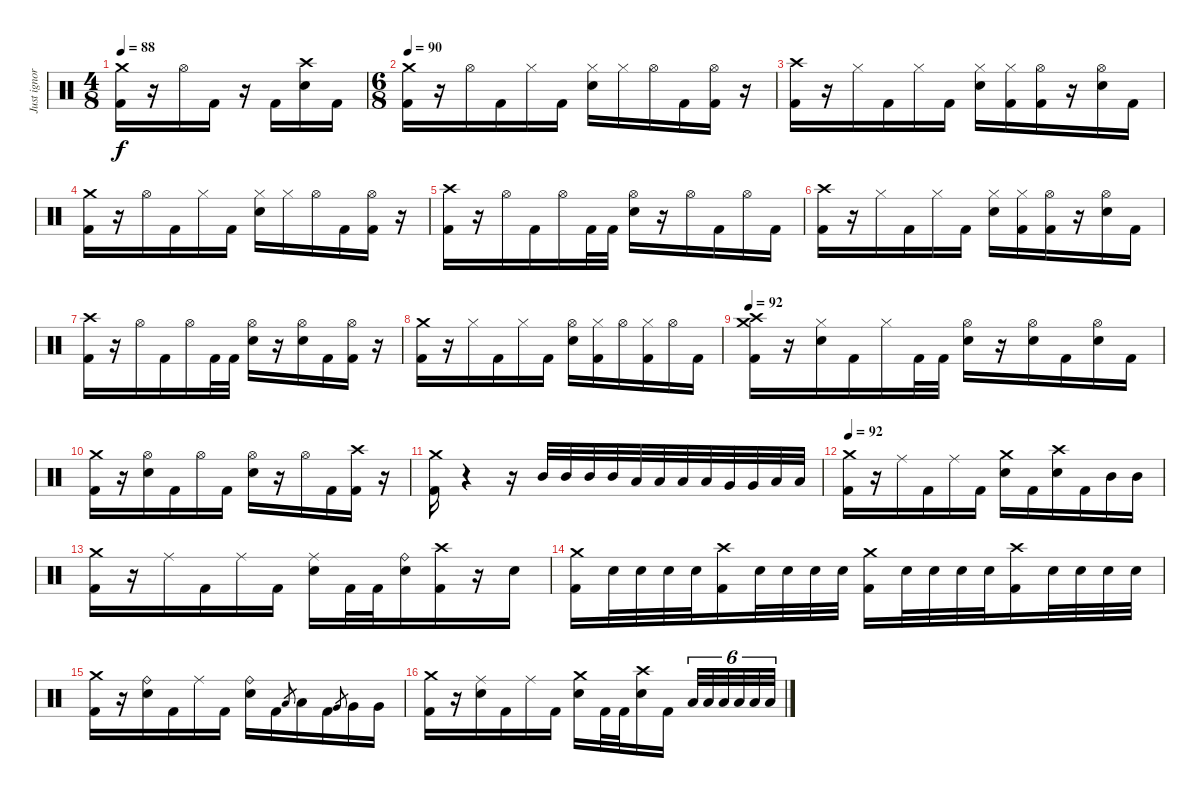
\track ("Just ignore this track" "Just ignor") {instrument percussion}
\staff {score}
\articulation defaults
\ts (4 8)
\tempo 88
\clef neutral
\ks c
("Crash medium (hit)" "Kick (hit) 2").16{dy f} r.16 "Hi-Hat (open)".16 "Kick (hit) 2".16 r.16 "Kick (hit) 2".16 ("Crash high (hit)" "Electric Snare (hit)").16 "Kick (hit) 2".16 |
\ts (6 8)
\tempo 90
("Crash medium (hit)" "Kick (hit) 2").16 r.16 "Hi-Hat (open)".16 "Kick (hit) 2".16 "Hi-Hat (closed)".16 "Kick (hit) 2".16 ("Hi-Hat (closed)" "Electric Snare (hit)").16 "Hi-Hat (closed)".16 "Hi-Hat (open)".16 "Kick (hit) 2".16 ("Hi-Hat (open)" "Kick (hit) 2").16 r.16 |
("Crash high (hit)" "Kick (hit) 2").16 r.16 "Hi-Hat (closed)".16 "Kick (hit) 2".16 "Hi-Hat (closed)".16 "Kick (hit) 2".16 ("Hi-Hat (closed)" "Electric Snare (hit)").16 ("Hi-Hat (closed)" "Kick (hit) 2").16 ("Hi-Hat (open)" "Kick (hit) 2").16 r.16 ("Hi-Hat (open)" "Electric Snare (hit)").16 "Kick (hit) 2".16 |
("Crash medium (hit)" "Kick (hit) 2").16 r.16 "Hi-Hat (open)".16 "Kick (hit) 2".16 "Hi-Hat (closed)".16 "Kick (hit) 2".16 ("Hi-Hat (closed)" "Electric Snare (hit)").16 "Hi-Hat (closed)".16 "Hi-Hat (open)".16 "Kick (hit) 2".16 ("Hi-Hat (open)" "Kick (hit) 2").16 r.16 |
("Crash high (hit)" "Kick (hit) 2").16 r.16 "Hi-Hat (open)".16 "Kick (hit) 2".16 "Hi-Hat (open)".16 "Kick (hit) 2".32 "Kick (hit) 2".32 ("Hi-Hat (open)" "Electric Snare (hit)").16 r.16 "Hi-Hat (open)".16 "Kick (hit) 2".16 "Hi-Hat (open)".16 "Kick (hit) 2".16 |
("Crash high (hit)" "Kick (hit) 2").16 r.16 "Hi-Hat (closed)".16 "Kick (hit) 2".16 "Hi-Hat (closed)".16 "Kick (hit) 2".16 ("Hi-Hat (closed)" "Electric Snare (hit)").16 ("Hi-Hat (closed)" "Kick (hit) 2").16 ("Hi-Hat (open)" "Kick (hit) 2").16 r.16 ("Hi-Hat (open)" "Electric Snare (hit)").16 "Kick (hit) 2".16 |
("Crash high (hit)" "Kick (hit) 2").16 r.16 "Hi-Hat (open)".16 "Kick (hit) 2".16 "Hi-Hat (open)".16 "Kick (hit) 2".32 "Kick (hit) 2".32 ("Hi-Hat (open)" "Electric Snare (hit)").16 r.16 ("Hi-Hat (open)" "Electric Snare (hit)").16 "Kick (hit) 2".16 ("Hi-Hat (open)" "Kick (hit) 2").16 r.16 |
("Crash medium (hit)" "Kick (hit) 2").16 r.16 "Hi-Hat (closed)".16 "Kick (hit) 2".16 "Hi-Hat (closed)".16 "Kick (hit) 2".16 ("Hi-Hat (open)" "Electric Snare (hit)").16 ("Hi-Hat (closed)" "Kick (hit) 2").16 "Hi-Hat (open)".16 ("Hi-Hat (closed)" "Kick (hit) 2").16 "Hi-Hat (open)".16 "Kick (hit) 2".16 |
\tempo 92
("Crash medium (hit)" "Crash high (hit)" "Kick (hit) 2").16 r.16 ("Hi-Hat (closed)" "Electric Snare (hit)").16 "Kick (hit) 2".16 "Hi-Hat (closed)".16 "Kick (hit) 2".32 "Kick (hit) 2".32 ("Hi-Hat (open)" "Electric Snare (hit)").16 r.16 ("Hi-Hat (open)" "Electric Snare (hit)").16 "Kick (hit) 2".16 ("Hi-Hat (open)" "Electric Snare (hit)").16 "Kick (hit) 2".16 |
("Crash medium (hit)" "Kick (hit) 2").16 r.16 ("Hi-Hat (open)" "Electric Snare (hit)").16 "Kick (hit) 2".16 "Hi-Hat (open)".16 "Kick (hit) 2".16 ("Hi-Hat (open)" "Electric Snare (hit)").16 r.16 "Hi-Hat (open)".16 "Kick (hit) 2".16 ("Crash high (hit)" "Kick (hit) 2").16 r.16 |
("Crash medium (hit)" "Kick (hit) 2").16 r.4 r.16 "Mid Tom (hit)".32 "Mid Tom (hit)".32 "Mid Tom (hit)".32 "Mid Tom (hit)".32 "Low Tom (hit)".32 "Low Tom (hit)".32 "Low Tom (hit)".32 "Low Tom (hit)".32 "Very Low Tom (hit)".32 "Very Low Tom (hit)".32 "Low Floor Tom (hit)".32 "Low Floor Tom (hit)".32 |
\tempo 92
("Crash medium (hit)" "Kick (hit) 2").16 r.16 "Ride (middle)".16 "Kick (hit) 2".16 "Ride (middle)".16 "Kick (hit) 2".16 ("Crash medium (hit)" "Electric Snare (hit)").16 "Kick (hit) 2".16 ("Crash high (hit)" "Electric Snare (hit)").16 "Kick (hit) 2".16 "Mid Tom (hit)".16 "Mid Tom (hit)".16 |
("Crash medium (hit)" "Kick (hit) 2").16 r.16 "Ride (middle)".16 "Kick (hit) 2".16 "Ride (middle)".16 "Kick (hit) 2".16 ("Ride (middle)" "Electric Snare (hit)").16 "Kick (hit) 2".32 "Kick (hit) 2".32 ("Ride (bell)" "Electric Snare (hit)").16 ("Crash high (hit)" "Kick (hit) 2").16 r.16 "Electric Snare (hit)".16 |
("Crash medium (hit)" "Kick (hit) 2").16 "Electric Snare (hit)".32 "Electric Snare (hit)".32 "Electric Snare (hit)".32 "Electric Snare (hit)".32 ("Crash high (hit)" "Kick (hit) 2").16 "Electric Snare (hit)".32 "Electric Snare (hit)".32 "Electric Snare (hit)".32 "Electric Snare (hit)".32 ("Crash medium (hit)" "Kick (hit) 2").16 "Electric Snare (hit)".32 "Electric Snare (hit)".32 "Electric Snare (hit)".32 "Electric Snare (hit)".32 ("Crash high (hit)" "Kick (hit) 2").16 "Electric Snare (hit)".32 "Electric Snare (hit)".32 "Electric Snare (hit)".32 "Electric Snare (hit)".32 |
("Crash medium (hit)" "Kick (hit) 2").16 r.16 ("Ride (bell)" "Electric Snare (hit)").16 "Kick (hit) 2".16 "Ride (middle)".16 "Kick (hit) 2".16 ("Ride (bell)" "Electric Snare (hit)").16 "Kick (hit) 2".16 "Low Tom (hit)".8{gr} "Low Tom (hit)".16 "Kick (hit) 2".16 "Very Low Tom (hit)".8{gr} "Very Low Tom (hit)".16 "Very Low Tom (hit)".16 |
("Crash medium (hit)" "Kick (hit) 2").16 r.16 ("Ride (middle)" "Electric Snare (hit)").16 "Kick (hit) 2".16 "Ride (middle)".16 "Kick (hit) 2".16 ("Crash medium (hit)" "Electric Snare (hit)").16 "Kick (hit) 2".32 "Kick (hit) 2".32 ("Crash high (hit)" "Electric Snare (hit)").16 "Kick (hit) 2".16 "Low Tom (hit)".32{tu (6 4)} "Low Tom (hit)".32{tu (6 4)} "Low Tom (hit)".32{tu (6 4)} "Low Tom (hit)".32{tu (6 4)} "Low Tom (hit)".32{tu (6 4)} "Low Tom (hit)".32{tu (6 4)}
